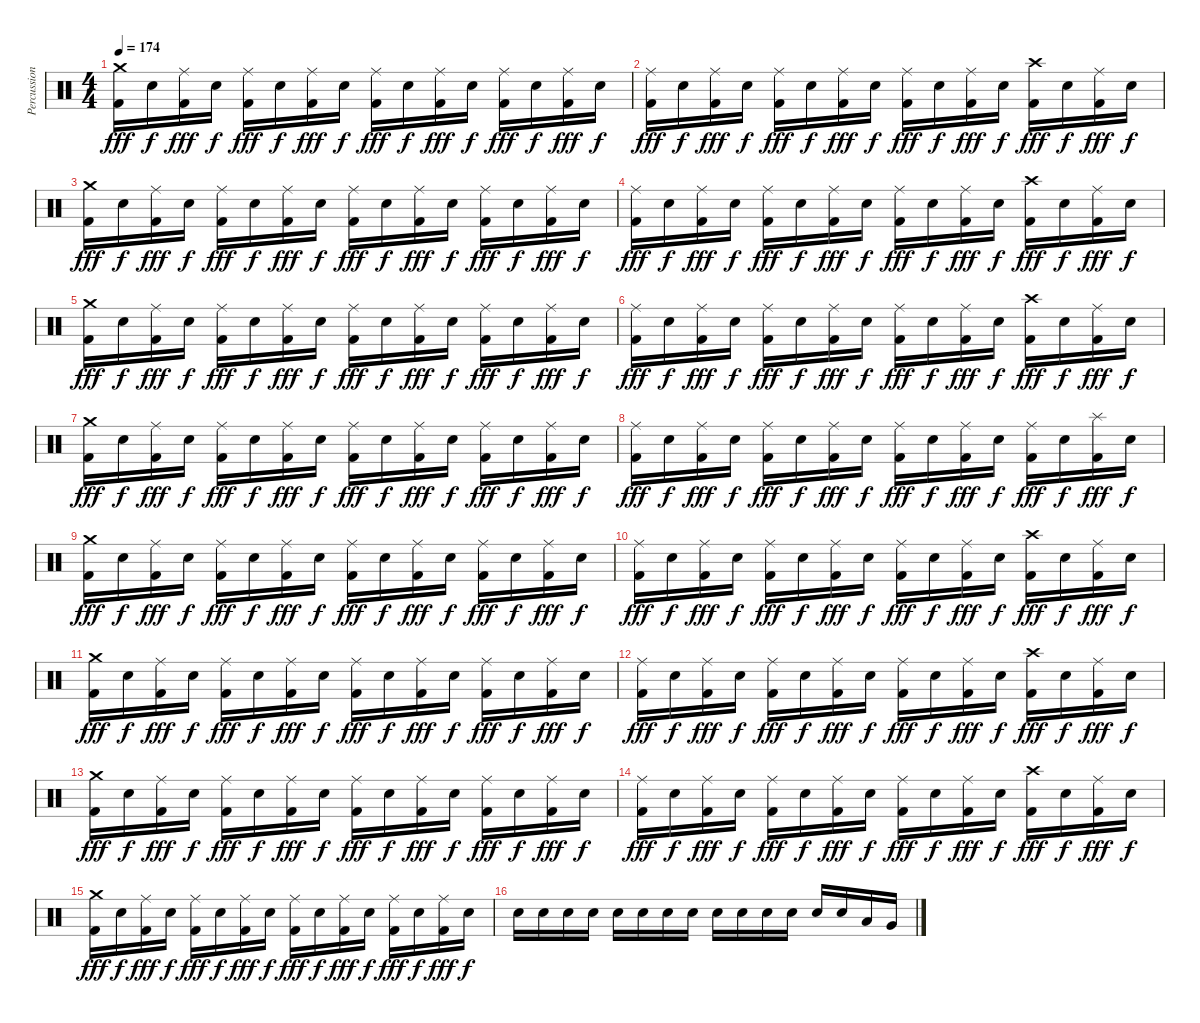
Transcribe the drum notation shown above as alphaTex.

\track ("Percussion" "Percussion") {instrument percussion}
\staff {score}
\articulation defaults
\ts (4 4)
\tempo 174
\clef neutral
\ks c
("Crash medium (hit)" "Kick (hit) 2").16{dy fff} "Electric Snare (hit)".16{dy f} ("Ride (middle)" "Kick (hit) 2").16{dy fff} "Electric Snare (hit)".16{dy f} ("Ride (middle)" "Kick (hit) 2").16{dy fff} "Electric Snare (hit)".16{dy f} ("Ride (middle)" "Kick (hit) 2").16{dy fff} "Electric Snare (hit)".16{dy f} ("Ride (middle)" "Kick (hit) 2").16{dy fff} "Electric Snare (hit)".16{dy f} ("Ride (middle)" "Kick (hit) 2").16{dy fff} "Electric Snare (hit)".16{dy f} ("Ride (middle)" "Kick (hit) 2").16{dy fff} "Electric Snare (hit)".16{dy f} ("Ride (middle)" "Kick (hit) 2").16{dy fff} "Electric Snare (hit)".16{dy f} |
("Ride (middle)" "Kick (hit) 2").16{dy fff} "Electric Snare (hit)".16{dy f} ("Ride (middle)" "Kick (hit) 2").16{dy fff} "Electric Snare (hit)".16{dy f} ("Ride (middle)" "Kick (hit) 2").16{dy fff} "Electric Snare (hit)".16{dy f} ("Ride (middle)" "Kick (hit) 2").16{dy fff} "Electric Snare (hit)".16{dy f} ("Ride (middle)" "Kick (hit) 2").16{dy fff} "Electric Snare (hit)".16{dy f} ("Ride (middle)" "Kick (hit) 2").16{dy fff} "Electric Snare (hit)".16{dy f} ("Crash high (hit)" "Kick (hit) 2").16{dy fff} "Electric Snare (hit)".16{dy f} ("Ride (middle)" "Kick (hit) 2").16{dy fff} "Electric Snare (hit)".16{dy f} |
("Crash medium (hit)" "Kick (hit) 2").16{dy fff} "Electric Snare (hit)".16{dy f} ("Ride (middle)" "Kick (hit) 2").16{dy fff} "Electric Snare (hit)".16{dy f} ("Ride (middle)" "Kick (hit) 2").16{dy fff} "Electric Snare (hit)".16{dy f} ("Ride (middle)" "Kick (hit) 2").16{dy fff} "Electric Snare (hit)".16{dy f} ("Ride (middle)" "Kick (hit) 2").16{dy fff} "Electric Snare (hit)".16{dy f} ("Ride (middle)" "Kick (hit) 2").16{dy fff} "Electric Snare (hit)".16{dy f} ("Ride (middle)" "Kick (hit) 2").16{dy fff} "Electric Snare (hit)".16{dy f} ("Ride (middle)" "Kick (hit) 2").16{dy fff} "Electric Snare (hit)".16{dy f} |
("Ride (middle)" "Kick (hit) 2").16{dy fff} "Electric Snare (hit)".16{dy f} ("Ride (middle)" "Kick (hit) 2").16{dy fff} "Electric Snare (hit)".16{dy f} ("Ride (middle)" "Kick (hit) 2").16{dy fff} "Electric Snare (hit)".16{dy f} ("Ride (middle)" "Kick (hit) 2").16{dy fff} "Electric Snare (hit)".16{dy f} ("Ride (middle)" "Kick (hit) 2").16{dy fff} "Electric Snare (hit)".16{dy f} ("Ride (middle)" "Kick (hit) 2").16{dy fff} "Electric Snare (hit)".16{dy f} ("Crash high (hit)" "Kick (hit) 2").16{dy fff} "Electric Snare (hit)".16{dy f} ("Ride (middle)" "Kick (hit) 2").16{dy fff} "Electric Snare (hit)".16{dy f} |
("Crash medium (hit)" "Kick (hit) 2").16{dy fff} "Electric Snare (hit)".16{dy f} ("Ride (middle)" "Kick (hit) 2").16{dy fff} "Electric Snare (hit)".16{dy f} ("Ride (middle)" "Kick (hit) 2").16{dy fff} "Electric Snare (hit)".16{dy f} ("Ride (middle)" "Kick (hit) 2").16{dy fff} "Electric Snare (hit)".16{dy f} ("Ride (middle)" "Kick (hit) 2").16{dy fff} "Electric Snare (hit)".16{dy f} ("Ride (middle)" "Kick (hit) 2").16{dy fff} "Electric Snare (hit)".16{dy f} ("Ride (middle)" "Kick (hit) 2").16{dy fff} "Electric Snare (hit)".16{dy f} ("Ride (middle)" "Kick (hit) 2").16{dy fff} "Electric Snare (hit)".16{dy f} |
("Ride (middle)" "Kick (hit) 2").16{dy fff} "Electric Snare (hit)".16{dy f} ("Ride (middle)" "Kick (hit) 2").16{dy fff} "Electric Snare (hit)".16{dy f} ("Ride (middle)" "Kick (hit) 2").16{dy fff} "Electric Snare (hit)".16{dy f} ("Ride (middle)" "Kick (hit) 2").16{dy fff} "Electric Snare (hit)".16{dy f} ("Ride (middle)" "Kick (hit) 2").16{dy fff} "Electric Snare (hit)".16{dy f} ("Ride (middle)" "Kick (hit) 2").16{dy fff} "Electric Snare (hit)".16{dy f} ("Crash high (hit)" "Kick (hit) 2").16{dy fff} "Electric Snare (hit)".16{dy f} ("Ride (middle)" "Kick (hit) 2").16{dy fff} "Electric Snare (hit)".16{dy f} |
("Crash medium (hit)" "Kick (hit) 2").16{dy fff} "Electric Snare (hit)".16{dy f} ("Ride (middle)" "Kick (hit) 2").16{dy fff} "Electric Snare (hit)".16{dy f} ("Ride (middle)" "Kick (hit) 2").16{dy fff} "Electric Snare (hit)".16{dy f} ("Ride (middle)" "Kick (hit) 2").16{dy fff} "Electric Snare (hit)".16{dy f} ("Ride (middle)" "Kick (hit) 2").16{dy fff} "Electric Snare (hit)".16{dy f} ("Ride (middle)" "Kick (hit) 2").16{dy fff} "Electric Snare (hit)".16{dy f} ("Ride (middle)" "Kick (hit) 2").16{dy fff} "Electric Snare (hit)".16{dy f} ("Ride (middle)" "Kick (hit) 2").16{dy fff} "Electric Snare (hit)".16{dy f} |
("Ride (middle)" "Kick (hit) 2").16{dy fff} "Electric Snare (hit)".16{dy f} ("Ride (middle)" "Kick (hit) 2").16{dy fff} "Electric Snare (hit)".16{dy f} ("Ride (middle)" "Kick (hit) 2").16{dy fff} "Electric Snare (hit)".16{dy f} ("Ride (middle)" "Kick (hit) 2").16{dy fff} "Electric Snare (hit)".16{dy f} ("Ride (middle)" "Kick (hit) 2").16{dy fff} "Electric Snare (hit)".16{dy f} ("Ride (middle)" "Kick (hit) 2").16{dy fff} "Electric Snare (hit)".16{dy f} ("Ride (middle)" "Kick (hit) 2").16{dy fff} "Electric Snare (hit)".16{dy f} ("Splash (hit)" "Kick (hit) 2").16{dy fff} "Electric Snare (hit)".16{dy f} |
("Crash medium (hit)" "Kick (hit) 2").16{dy fff} "Electric Snare (hit)".16{dy f} ("Ride (middle)" "Kick (hit) 2").16{dy fff} "Electric Snare (hit)".16{dy f} ("Ride (middle)" "Kick (hit) 2").16{dy fff} "Electric Snare (hit)".16{dy f} ("Ride (middle)" "Kick (hit) 2").16{dy fff} "Electric Snare (hit)".16{dy f} ("Ride (middle)" "Kick (hit) 2").16{dy fff} "Electric Snare (hit)".16{dy f} ("Ride (middle)" "Kick (hit) 2").16{dy fff} "Electric Snare (hit)".16{dy f} ("Ride (middle)" "Kick (hit) 2").16{dy fff} "Electric Snare (hit)".16{dy f} ("Ride (middle)" "Kick (hit) 2").16{dy fff} "Electric Snare (hit)".16{dy f} |
("Ride (middle)" "Kick (hit) 2").16{dy fff} "Electric Snare (hit)".16{dy f} ("Ride (middle)" "Kick (hit) 2").16{dy fff} "Electric Snare (hit)".16{dy f} ("Ride (middle)" "Kick (hit) 2").16{dy fff} "Electric Snare (hit)".16{dy f} ("Ride (middle)" "Kick (hit) 2").16{dy fff} "Electric Snare (hit)".16{dy f} ("Ride (middle)" "Kick (hit) 2").16{dy fff} "Electric Snare (hit)".16{dy f} ("Ride (middle)" "Kick (hit) 2").16{dy fff} "Electric Snare (hit)".16{dy f} ("Crash high (hit)" "Kick (hit) 2").16{dy fff} "Electric Snare (hit)".16{dy f} ("Ride (middle)" "Kick (hit) 2").16{dy fff} "Electric Snare (hit)".16{dy f} |
("Crash medium (hit)" "Kick (hit) 2").16{dy fff} "Electric Snare (hit)".16{dy f} ("Ride (middle)" "Kick (hit) 2").16{dy fff} "Electric Snare (hit)".16{dy f} ("Ride (middle)" "Kick (hit) 2").16{dy fff} "Electric Snare (hit)".16{dy f} ("Ride (middle)" "Kick (hit) 2").16{dy fff} "Electric Snare (hit)".16{dy f} ("Ride (middle)" "Kick (hit) 2").16{dy fff} "Electric Snare (hit)".16{dy f} ("Ride (middle)" "Kick (hit) 2").16{dy fff} "Electric Snare (hit)".16{dy f} ("Ride (middle)" "Kick (hit) 2").16{dy fff} "Electric Snare (hit)".16{dy f} ("Ride (middle)" "Kick (hit) 2").16{dy fff} "Electric Snare (hit)".16{dy f} |
("Ride (middle)" "Kick (hit) 2").16{dy fff} "Electric Snare (hit)".16{dy f} ("Ride (middle)" "Kick (hit) 2").16{dy fff} "Electric Snare (hit)".16{dy f} ("Ride (middle)" "Kick (hit) 2").16{dy fff} "Electric Snare (hit)".16{dy f} ("Ride (middle)" "Kick (hit) 2").16{dy fff} "Electric Snare (hit)".16{dy f} ("Ride (middle)" "Kick (hit) 2").16{dy fff} "Electric Snare (hit)".16{dy f} ("Ride (middle)" "Kick (hit) 2").16{dy fff} "Electric Snare (hit)".16{dy f} ("Crash high (hit)" "Kick (hit) 2").16{dy fff} "Electric Snare (hit)".16{dy f} ("Ride (middle)" "Kick (hit) 2").16{dy fff} "Electric Snare (hit)".16{dy f} |
("Crash medium (hit)" "Kick (hit) 2").16{dy fff} "Electric Snare (hit)".16{dy f} ("Ride (middle)" "Kick (hit) 2").16{dy fff} "Electric Snare (hit)".16{dy f} ("Ride (middle)" "Kick (hit) 2").16{dy fff} "Electric Snare (hit)".16{dy f} ("Ride (middle)" "Kick (hit) 2").16{dy fff} "Electric Snare (hit)".16{dy f} ("Ride (middle)" "Kick (hit) 2").16{dy fff} "Electric Snare (hit)".16{dy f} ("Ride (middle)" "Kick (hit) 2").16{dy fff} "Electric Snare (hit)".16{dy f} ("Ride (middle)" "Kick (hit) 2").16{dy fff} "Electric Snare (hit)".16{dy f} ("Ride (middle)" "Kick (hit) 2").16{dy fff} "Electric Snare (hit)".16{dy f} |
("Ride (middle)" "Kick (hit) 2").16{dy fff} "Electric Snare (hit)".16{dy f} ("Ride (middle)" "Kick (hit) 2").16{dy fff} "Electric Snare (hit)".16{dy f} ("Ride (middle)" "Kick (hit) 2").16{dy fff} "Electric Snare (hit)".16{dy f} ("Ride (middle)" "Kick (hit) 2").16{dy fff} "Electric Snare (hit)".16{dy f} ("Ride (middle)" "Kick (hit) 2").16{dy fff} "Electric Snare (hit)".16{dy f} ("Ride (middle)" "Kick (hit) 2").16{dy fff} "Electric Snare (hit)".16{dy f} ("Crash high (hit)" "Kick (hit) 2").16{dy fff} "Electric Snare (hit)".16{dy f} ("Ride (middle)" "Kick (hit) 2").16{dy fff} "Electric Snare (hit)".16{dy f} |
("Crash medium (hit)" "Kick (hit) 2").16{dy fff} "Electric Snare (hit)".16{dy f} ("Ride (middle)" "Kick (hit) 2").16{dy fff} "Electric Snare (hit)".16{dy f} ("Ride (middle)" "Kick (hit) 2").16{dy fff} "Electric Snare (hit)".16{dy f} ("Ride (middle)" "Kick (hit) 2").16{dy fff} "Electric Snare (hit)".16{dy f} ("Ride (middle)" "Kick (hit) 2").16{dy fff} "Electric Snare (hit)".16{dy f} ("Ride (middle)" "Kick (hit) 2").16{dy fff} "Electric Snare (hit)".16{dy f} ("Ride (middle)" "Kick (hit) 2").16{dy fff} "Electric Snare (hit)".16{dy f} ("Ride (middle)" "Kick (hit) 2").16{dy fff} "Electric Snare (hit)".16{dy f} |
"Electric Snare (hit)".16 "Electric Snare (hit)".16 "Electric Snare (hit)".16 "Electric Snare (hit)".16 "Electric Snare (hit)".16 "Electric Snare (hit)".16 "Electric Snare (hit)".16 "Electric Snare (hit)".16 "Electric Snare (hit)".16 "Electric Snare (hit)".16 "Electric Snare (hit)".16 "Electric Snare (hit)".16 "Electric Snare (hit)".16 "Electric Snare (hit)".16 "Low Tom (hit)".16 "Very Low Tom (hit)".16
